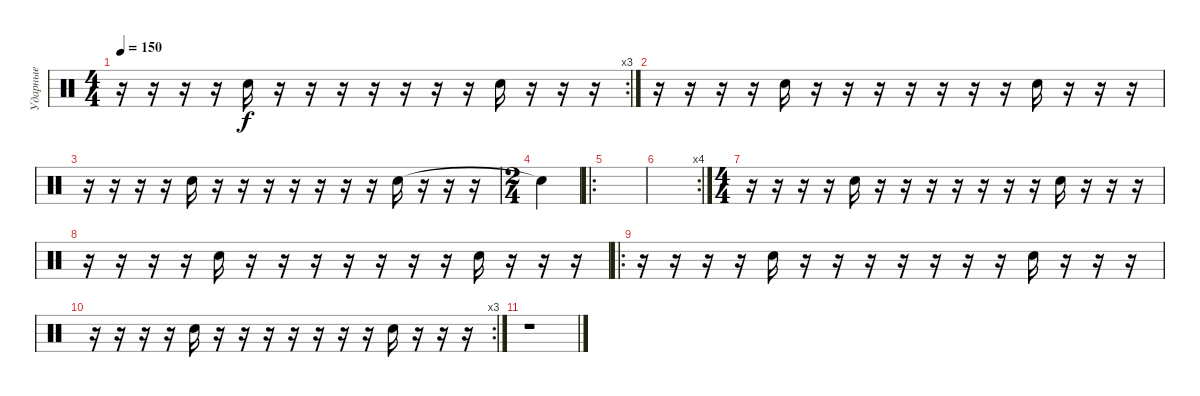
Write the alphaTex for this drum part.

\track ("Ударные" "Ударные") {instrument percussion}
\staff {score}
\articulation defaults
\rc 3
\ts (4 4)
\tempo 150
\clef neutral
\ks c
r.16{dy f} r.16 r.16 r.16 "Snare (hit) 2".16 r.16 r.16 r.16 r.16 r.16 r.16 r.16 "Snare (hit) 2".16 r.16 r.16 r.16 |
r.16 r.16 r.16 r.16 "Snare (hit) 2".16 r.16 r.16 r.16 r.16 r.16 r.16 r.16 "Snare (hit) 2".16 r.16 r.16 r.16 |
r.16 r.16 r.16 r.16 "Snare (hit) 2".16 r.16 r.16 r.16 r.16 r.16 r.16 r.16 "Snare (hit) 2".16 r.16 r.16 r.16 |
\ts (2 4)
"Snare (hit)"{t}.4 |
\ro
|
\rc 4
|
\ts (4 4)
r.16 r.16 r.16 r.16 "Snare (hit) 2".16 r.16 r.16 r.16 r.16 r.16 r.16 r.16 "Snare (hit) 2".16 r.16 r.16 r.16 |
r.16 r.16 r.16 r.16 "Snare (hit) 2".16 r.16 r.16 r.16 r.16 r.16 r.16 r.16 "Snare (hit) 2".16 r.16 r.16 r.16 |
\ro
r.16 r.16 r.16 r.16 "Snare (hit) 2".16 r.16 r.16 r.16 r.16 r.16 r.16 r.16 "Snare (hit) 2".16 r.16 r.16 r.16 |
\rc 3
r.16 r.16 r.16 r.16 "Snare (hit) 2".16 r.16 r.16 r.16 r.16 r.16 r.16 r.16 "Snare (hit) 2".16 r.16 r.16 r.16 |
r.1
